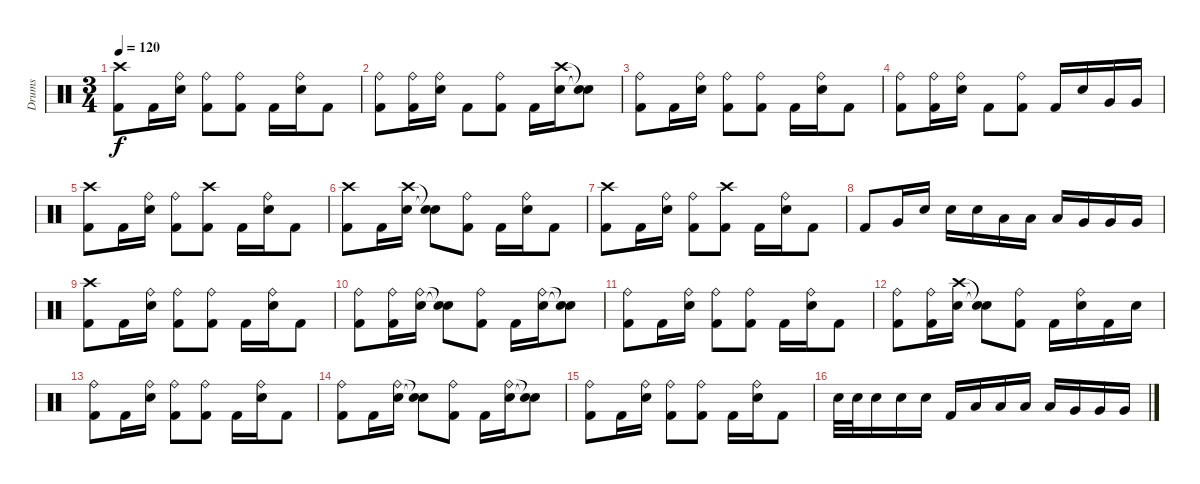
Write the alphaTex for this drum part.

\track ("Drums" "Drums") {instrument percussion}
\staff {score}
\articulation defaults
\ts (3 4)
\tempo 120
\clef neutral
\ks c
("Crash high (hit)" "Kick (hit) 2").8{dy f} "Kick (hit) 2".16 ("Ride (bell)" "Electric Snare (hit)").16 ("Ride (bell)" "Kick (hit) 2").8 ("Ride (bell)" "Kick (hit) 2").8 "Kick (hit) 2".16 ("Ride (bell)" "Electric Snare (hit)").16 "Kick (hit) 2".8 |
("Ride (bell)" "Kick (hit) 2").8 ("Ride (bell)" "Kick (hit) 2").16 ("Ride (bell)" "Electric Snare (hit)").16 "Kick (hit) 2".8 ("Ride (bell)" "Kick (hit) 2").8 "Kick (hit) 2".16 ("Crash high (hit)" "Electric Snare (hit)").16 ("Snare (hit)"{t} "Snare (hit)"{t}).8 |
("Ride (bell)" "Kick (hit) 2").8 "Kick (hit) 2".16 ("Ride (bell)" "Electric Snare (hit)").16 ("Ride (bell)" "Kick (hit) 2").8 ("Ride (bell)" "Kick (hit) 2").8 "Kick (hit) 2".16 ("Ride (bell)" "Electric Snare (hit)").16 "Kick (hit) 2".8 |
("Ride (bell)" "Kick (hit) 2").8 ("Ride (bell)" "Kick (hit) 2").16 ("Ride (bell)" "Electric Snare (hit)").16 "Kick (hit) 2".8 ("Ride (bell)" "Kick (hit) 2").8 "Kick (hit) 2".16 "Electric Snare (hit)".16 "Very Low Tom (hit)".16 "Very Low Tom (hit)".16 |
("Crash high (hit)" "Kick (hit) 2").8 "Kick (hit) 2".16 ("Ride (bell)" "Electric Snare (hit)").16 ("Ride (bell)" "Kick (hit) 2").8 ("Crash high (hit)" "Kick (hit) 2").8 "Kick (hit) 2".16 ("Ride (bell)" "Electric Snare (hit)").16 "Kick (hit) 2".8 |
("Crash high (hit)" "Kick (hit) 2").8 "Kick (hit) 2".16 ("Crash high (hit)" "Electric Snare (hit)").16 ("Snare (hit)"{t} "Snare (hit)"{t}).8 ("Ride (bell)" "Kick (hit) 2").8 "Kick (hit) 2".16 ("Ride (bell)" "Electric Snare (hit)").16 "Kick (hit) 2".8 |
("Crash high (hit)" "Kick (hit) 2").8 "Kick (hit) 2".16 ("Ride (bell)" "Electric Snare (hit)").16 ("Ride (bell)" "Kick (hit) 2").8 ("Crash high (hit)" "Kick (hit) 2").8 "Kick (hit) 2".16 ("Ride (bell)" "Electric Snare (hit)").16 "Kick (hit) 2".8 |
"Kick (hit) 2".8 "Very Low Tom (hit)".16 "Electric Snare (hit)".16 "Electric Snare (hit)".16 "Electric Snare (hit)".16 "Low Tom (hit)".16 "Low Tom (hit)".16 "Low Tom (hit)".16 "Very Low Tom (hit)".16 "Very Low Tom (hit)".16 "Very Low Tom (hit)".16 |
("Crash high (hit)" "Kick (hit) 2").8 "Kick (hit) 2".16 ("Ride (bell)" "Electric Snare (hit)").16 ("Ride (bell)" "Kick (hit) 2").8 ("Ride (bell)" "Kick (hit) 2").8 "Kick (hit) 2".16 ("Ride (bell)" "Electric Snare (hit)").16 "Kick (hit) 2".8 |
("Ride (bell)" "Kick (hit) 2").8 ("Ride (bell)" "Kick (hit) 2").16 ("Ride (bell)" "Electric Snare (hit)").16 ("Snare (hit)"{t} "Snare (hit)"{t}).8 ("Ride (bell)" "Kick (hit) 2").8 "Kick (hit) 2".16 ("Ride (bell)" "Electric Snare (hit)").16 ("Snare (hit)"{t} "Snare (hit)"{t}).8 |
("Ride (bell)" "Kick (hit) 2").8 "Kick (hit) 2".16 ("Ride (bell)" "Electric Snare (hit)").16 ("Ride (bell)" "Kick (hit) 2").8 ("Ride (bell)" "Kick (hit) 2").8 "Kick (hit) 2".16 ("Ride (bell)" "Electric Snare (hit)").16 "Kick (hit) 2".8 |
("Ride (bell)" "Kick (hit) 2").8 ("Ride (bell)" "Kick (hit) 2").16 ("Crash high (hit)" "Electric Snare (hit)").16 ("Snare (hit)"{t} "Snare (hit)"{t}).8 ("Ride (bell)" "Kick (hit) 2").8 "Kick (hit) 2".16 ("Ride (bell)" "Electric Snare (hit)").16 "Kick (hit) 2".16 "Electric Snare (hit)".16 |
("Ride (bell)" "Kick (hit) 2").8 "Kick (hit) 2".16 ("Ride (bell)" "Electric Snare (hit)").16 ("Ride (bell)" "Kick (hit) 2").8 ("Ride (bell)" "Kick (hit) 2").8 "Kick (hit) 2".16 ("Ride (bell)" "Electric Snare (hit)").16 "Kick (hit) 2".8 |
("Ride (bell)" "Kick (hit) 2").8 "Kick (hit) 2".16 ("Ride (bell)" "Electric Snare (hit)").16 ("Snare (hit)"{t} "Snare (hit)"{t}).8 ("Ride (bell)" "Kick (hit) 2").8 "Kick (hit) 2".16 ("Ride (bell)" "Electric Snare (hit)").16 ("Snare (hit)"{t} "Snare (hit)"{t}).8 |
("Ride (bell)" "Kick (hit) 2").8 "Kick (hit) 2".16 ("Ride (bell)" "Electric Snare (hit)").16 ("Ride (bell)" "Kick (hit) 2").8 ("Ride (bell)" "Kick (hit) 2").8 "Kick (hit) 2".16 ("Ride (bell)" "Electric Snare (hit)").16 "Kick (hit) 2".8 |
"Electric Snare (hit)".32 "Electric Snare (hit)".32 "Electric Snare (hit)".16 "Electric Snare (hit)".16 "Electric Snare (hit)".16 "Kick (hit) 2".16 "Low Tom (hit)".16 "Low Tom (hit)".16 "Low Tom (hit)".16 "Low Tom (hit)".16 "Very Low Tom (hit)".16 "Very Low Tom (hit)".16 "Very Low Tom (hit)".16
